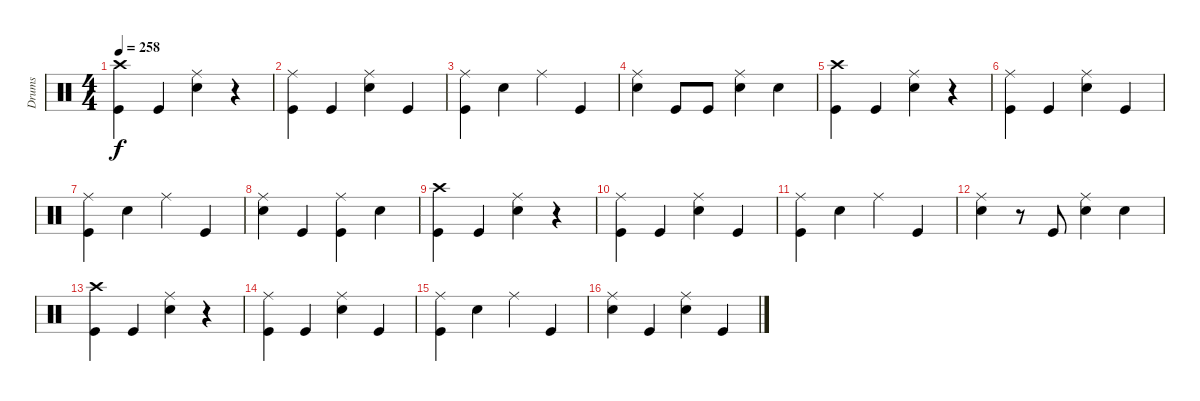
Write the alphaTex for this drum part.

\track ("Drums" "Drums") {instrument percussion}
\staff {score}
\articulation defaults
\ts (4 4)
\section ("" "")
\tempo 258
\clef neutral
\ks c
("Crash high (hit)" "Kick (hit)").4{dy f} "Kick (hit)".4 ("Ride (middle)" "Electric Snare (hit)").4 r.4 |
("Ride (middle)" "Kick (hit)").4 "Kick (hit)".4 ("Ride (middle)" "Electric Snare (hit)").4 "Kick (hit)".4 |
("Ride (middle)" "Kick (hit)").4 "Electric Snare (hit)".4 "Ride (middle)".4 "Kick (hit)".4 |
("Ride (middle)" "Electric Snare (hit)").4 "Kick (hit)".8 "Kick (hit)".8 ("Ride (middle)" "Electric Snare (hit)").4 "Electric Snare (hit)".4 |
("Crash high (hit)" "Kick (hit)").4 "Kick (hit)".4 ("Ride (middle)" "Electric Snare (hit)").4 r.4 |
("Ride (middle)" "Kick (hit)").4 "Kick (hit)".4 ("Ride (middle)" "Electric Snare (hit)").4 "Kick (hit)".4 |
("Ride (middle)" "Kick (hit)").4 "Electric Snare (hit)".4 "Ride (middle)".4 "Kick (hit)".4 |
("Ride (middle)" "Electric Snare (hit)").4 "Kick (hit)".4 ("Ride (middle)" "Kick (hit)").4 "Electric Snare (hit)".4 |
("Crash high (hit)" "Kick (hit)").4 "Kick (hit)".4 ("Ride (middle)" "Electric Snare (hit)").4 r.4 |
("Ride (middle)" "Kick (hit)").4 "Kick (hit)".4 ("Ride (middle)" "Electric Snare (hit)").4 "Kick (hit)".4 |
("Ride (middle)" "Kick (hit)").4 "Electric Snare (hit)".4 "Ride (middle)".4 "Kick (hit)".4 |
("Ride (middle)" "Electric Snare (hit)").4 r.8 "Kick (hit)".8 ("Ride (middle)" "Electric Snare (hit)").4 "Electric Snare (hit)".4 |
("Crash high (hit)" "Kick (hit)").4 "Kick (hit)".4 ("Ride (middle)" "Electric Snare (hit)").4 r.4 |
("Ride (middle)" "Kick (hit)").4 "Kick (hit)".4 ("Ride (middle)" "Electric Snare (hit)").4 "Kick (hit)".4 |
("Ride (middle)" "Kick (hit)").4 "Electric Snare (hit)".4 "Ride (middle)".4 "Kick (hit)".4 |
("Ride (middle)" "Electric Snare (hit)").4 "Kick (hit)".4 ("Ride (middle)" "Electric Snare (hit)").4 "Kick (hit)".4
